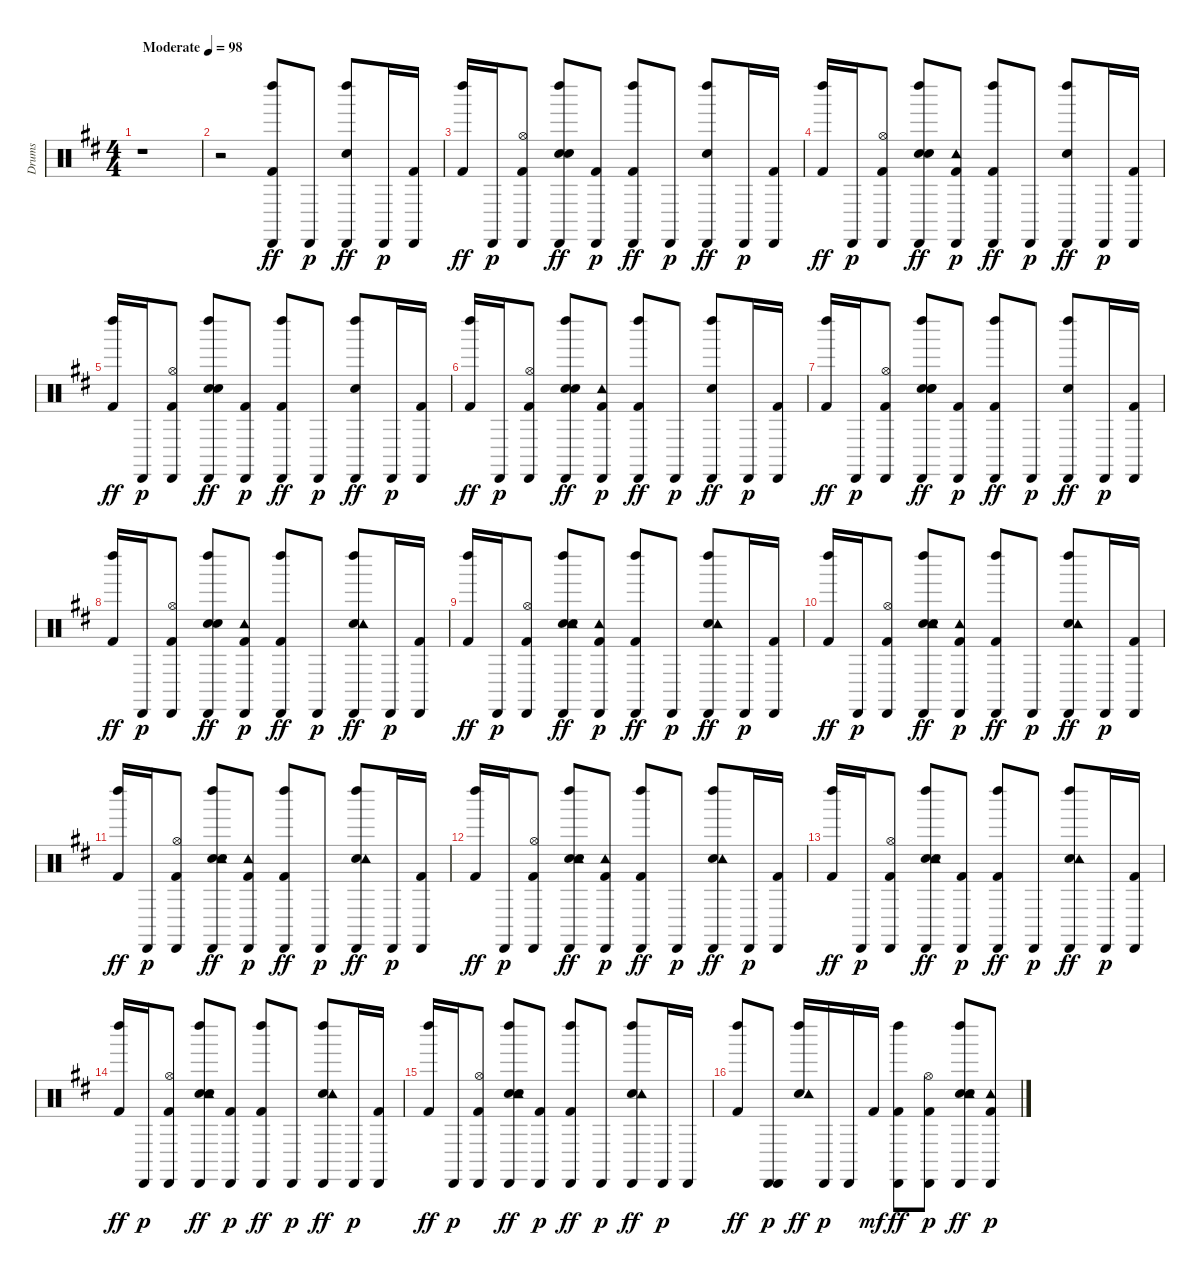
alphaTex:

\track ("Drums" "Drums") {instrument percussion}
\staff {score}
\articulation defaults
\ts (4 4)
\tempo (98 "Moderate")
\clef neutral
\ks d
r.1{dy ff} |
r.2 ("Kick (hit) 2" "Cabasa (hit)" "Left Maraca (hit)").8 "Cabasa (hit)".8{dy p} ("Electric Snare (hit)" "Cabasa (hit)" "Left Maraca (hit)").8{dy ff} "Cabasa (hit)".16{dy p} ("Kick (hit) 2" "Cabasa (hit)").16 |
("Kick (hit) 2" "Left Maraca (hit)").16{dy ff} "Cabasa (hit)".16{dy p} ("Kick (hit) 2" "Hi-Hat (open)" "Cabasa (hit)").8 ("Hand Clap (hit)" "Electric Snare (hit)" "Cabasa (hit)" "Left Maraca (hit)").8{dy ff} ("Kick (hit) 2" "Cabasa (hit)").8{dy p} ("Kick (hit) 2" "Cabasa (hit)" "Left Maraca (hit)").8{dy ff} "Cabasa (hit)".8{dy p} ("Electric Snare (hit)" "Cabasa (hit)" "Left Maraca (hit)").8{dy ff} "Cabasa (hit)".16{dy p} ("Kick (hit) 2" "Cabasa (hit)").16 |
("Kick (hit) 2" "Left Maraca (hit)").16{dy ff} "Cabasa (hit)".16{dy p} ("Kick (hit) 2" "Hi-Hat (open)" "Cabasa (hit)").8 ("Hand Clap (hit)" "Electric Snare (hit)" "Cabasa (hit)" "Left Maraca (hit)").8{dy ff} ("Kick (hit) 2" "Tambourine (hit)" "Cabasa (hit)").8{dy p} ("Kick (hit) 2" "Cabasa (hit)" "Left Maraca (hit)").8{dy ff} "Cabasa (hit)".8{dy p} ("Electric Snare (hit)" "Cabasa (hit)" "Left Maraca (hit)").8{dy ff} "Cabasa (hit)".16{dy p} ("Kick (hit) 2" "Cabasa (hit)").16 |
("Kick (hit) 2" "Left Maraca (hit)").16{dy ff} "Cabasa (hit)".16{dy p} ("Kick (hit) 2" "Hi-Hat (open)" "Cabasa (hit)").8 ("Hand Clap (hit)" "Electric Snare (hit)" "Cabasa (hit)" "Left Maraca (hit)").8{dy ff} ("Kick (hit) 2" "Cabasa (hit)").8{dy p} ("Kick (hit) 2" "Cabasa (hit)" "Left Maraca (hit)").8{dy ff} "Cabasa (hit)".8{dy p} ("Electric Snare (hit)" "Cabasa (hit)" "Left Maraca (hit)").8{dy ff} "Cabasa (hit)".16{dy p} ("Kick (hit) 2" "Cabasa (hit)").16 |
("Kick (hit) 2" "Left Maraca (hit)").16{dy ff} "Cabasa (hit)".16{dy p} ("Kick (hit) 2" "Hi-Hat (open)" "Cabasa (hit)").8 ("Hand Clap (hit)" "Electric Snare (hit)" "Cabasa (hit)" "Left Maraca (hit)").8{dy ff} ("Kick (hit) 2" "Tambourine (hit)" "Cabasa (hit)").8{dy p} ("Kick (hit) 2" "Cabasa (hit)" "Left Maraca (hit)").8{dy ff} "Cabasa (hit)".8{dy p} ("Electric Snare (hit)" "Cabasa (hit)" "Left Maraca (hit)").8{dy ff} "Cabasa (hit)".16{dy p} ("Kick (hit) 2" "Cabasa (hit)").16 |
("Kick (hit) 2" "Left Maraca (hit)").16{dy ff} "Cabasa (hit)".16{dy p} ("Kick (hit) 2" "Hi-Hat (open)" "Cabasa (hit)").8 ("Snare (hit) 2" "Hand Clap (hit)" "Electric Snare (hit)" "Cabasa (hit)" "Left Maraca (hit)").8{dy ff} ("Kick (hit) 2" "Cabasa (hit)").8{dy p} ("Kick (hit) 2" "Cabasa (hit)" "Left Maraca (hit)").8{dy ff} "Cabasa (hit)".8{dy p} ("Electric Snare (hit)" "Cabasa (hit)" "Left Maraca (hit)").8{dy ff} "Cabasa (hit)".16{dy p} ("Kick (hit) 2" "Cabasa (hit)").16 |
("Kick (hit) 2" "Left Maraca (hit)").16{dy ff} "Cabasa (hit)".16{dy p} ("Kick (hit) 2" "Hi-Hat (open)" "Cabasa (hit)").8 ("Hand Clap (hit)" "Electric Snare (hit)" "Cabasa (hit)" "Left Maraca (hit)").8{dy ff} ("Kick (hit) 2" "Tambourine (hit)" "Cabasa (hit)").8{dy p} ("Kick (hit) 2" "Cabasa (hit)" "Left Maraca (hit)").8{dy ff} "Cabasa (hit)".8{dy p} ("Electric Snare (hit)" "Tambourine (hit)" "Cabasa (hit)" "Left Maraca (hit)").8{dy ff} "Cabasa (hit)".16{dy p} ("Kick (hit) 2" "Cabasa (hit)").16 |
("Kick (hit) 2" "Left Maraca (hit)").16{dy ff} "Cabasa (hit)".16{dy p} ("Kick (hit) 2" "Hi-Hat (open)" "Cabasa (hit)").8 ("Hand Clap (hit)" "Electric Snare (hit)" "Tambourine (hit)" "Cabasa (hit)" "Left Maraca (hit)").8{dy ff} ("Kick (hit) 2" "Tambourine (hit)" "Cabasa (hit)").8{dy p} ("Kick (hit) 2" "Cabasa (hit)" "Left Maraca (hit)").8{dy ff} "Cabasa (hit)".8{dy p} ("Electric Snare (hit)" "Tambourine (hit)" "Cabasa (hit)" "Left Maraca (hit)").8{dy ff} "Cabasa (hit)".16{dy p} ("Kick (hit) 2" "Cabasa (hit)").16 |
("Kick (hit) 2" "Left Maraca (hit)").16{dy ff} "Cabasa (hit)".16{dy p} ("Kick (hit) 2" "Hi-Hat (open)" "Cabasa (hit)").8 ("Hand Clap (hit)" "Electric Snare (hit)" "Tambourine (hit)" "Cabasa (hit)" "Left Maraca (hit)").8{dy ff} ("Kick (hit) 2" "Tambourine (hit)" "Cabasa (hit)").8{dy p} ("Kick (hit) 2" "Cabasa (hit)" "Left Maraca (hit)").8{dy ff} "Cabasa (hit)".8{dy p} ("Electric Snare (hit)" "Tambourine (hit)" "Cabasa (hit)" "Left Maraca (hit)").8{dy ff} "Cabasa (hit)".16{dy p} ("Kick (hit) 2" "Cabasa (hit)").16 |
("Kick (hit) 2" "Left Maraca (hit)").16{dy ff} "Cabasa (hit)".16{dy p} ("Kick (hit) 2" "Hi-Hat (open)" "Cabasa (hit)").8 ("Hand Clap (hit)" "Electric Snare (hit)" "Tambourine (hit)" "Cabasa (hit)" "Left Maraca (hit)").8{dy ff} ("Kick (hit) 2" "Tambourine (hit)" "Cabasa (hit)").8{dy p} ("Kick (hit) 2" "Cabasa (hit)" "Left Maraca (hit)").8{dy ff} "Cabasa (hit)".8{dy p} ("Electric Snare (hit)" "Tambourine (hit)" "Cabasa (hit)" "Left Maraca (hit)").8{dy ff} "Cabasa (hit)".16{dy p} ("Kick (hit) 2" "Cabasa (hit)").16 |
("Kick (hit) 2" "Left Maraca (hit)").16{dy ff} "Cabasa (hit)".16{dy p} ("Kick (hit) 2" "Hi-Hat (open)" "Cabasa (hit)").8 ("Hand Clap (hit)" "Electric Snare (hit)" "Tambourine (hit)" "Cabasa (hit)" "Left Maraca (hit)").8{dy ff} ("Kick (hit) 2" "Tambourine (hit)" "Cabasa (hit)").8{dy p} ("Kick (hit) 2" "Cabasa (hit)" "Left Maraca (hit)").8{dy ff} "Cabasa (hit)".8{dy p} ("Electric Snare (hit)" "Tambourine (hit)" "Cabasa (hit)" "Left Maraca (hit)").8{dy ff} "Cabasa (hit)".16{dy p} ("Kick (hit) 2" "Cabasa (hit)").16 |
("Kick (hit) 2" "Left Maraca (hit)").16{dy ff} "Cabasa (hit)".16{dy p} ("Kick (hit) 2" "Hi-Hat (open)" "Cabasa (hit)").8 ("Hand Clap (hit)" "Electric Snare (hit)" "Tambourine (hit)" "Cabasa (hit)" "Left Maraca (hit)").8{dy ff} ("Kick (hit) 2" "Cabasa (hit)").8{dy p} ("Kick (hit) 2" "Cabasa (hit)" "Left Maraca (hit)").8{dy ff} "Cabasa (hit)".8{dy p} ("Electric Snare (hit)" "Tambourine (hit)" "Cabasa (hit)" "Left Maraca (hit)").8{dy ff} "Cabasa (hit)".16{dy p} ("Kick (hit) 2" "Cabasa (hit)").16 |
("Kick (hit) 2" "Left Maraca (hit)").16{dy ff} "Cabasa (hit)".16{dy p} ("Kick (hit) 2" "Hi-Hat (open)" "Cabasa (hit)").8 ("Hand Clap (hit)" "Electric Snare (hit)" "Tambourine (hit)" "Cabasa (hit)" "Left Maraca (hit)").8{dy ff} ("Kick (hit) 2" "Cabasa (hit)").8{dy p} ("Kick (hit) 2" "Cabasa (hit)" "Left Maraca (hit)").8{dy ff} "Cabasa (hit)".8{dy p} ("Electric Snare (hit)" "Tambourine (hit)" "Cabasa (hit)" "Left Maraca (hit)").8{dy ff} "Cabasa (hit)".16{dy p} ("Kick (hit) 2" "Cabasa (hit)").16 |
("Kick (hit) 2" "Left Maraca (hit)").16{dy ff} "Cabasa (hit)".16{dy p} ("Kick (hit) 2" "Hi-Hat (open)" "Cabasa (hit)").8 ("Hand Clap (hit)" "Electric Snare (hit)" "Tambourine (hit)" "Cabasa (hit)" "Left Maraca (hit)").8{dy ff} ("Kick (hit) 2" "Cabasa (hit)").8{dy p} ("Kick (hit) 2" "Cabasa (hit)" "Left Maraca (hit)").8{dy ff} "Cabasa (hit)".8{dy p} ("Electric Snare (hit)" "Tambourine (hit)" "Cabasa (hit)" "Left Maraca (hit)").8{dy ff} "Cabasa (hit)".16{dy p} "Cabasa (hit)".16 |
("Kick (hit) 2" "Left Maraca (hit)").8{dy ff} ("Cabasa (hit)" "Cabasa (hit)").8{dy p} ("Electric Snare (hit)" "Tambourine (hit)" "Left Maraca (hit)").16{dy ff} "Cabasa (hit)".16{dy p} "Cabasa (hit)".16 "Kick (hit) 2".16{dy mf} ("Kick (hit) 2" "Cabasa (hit)" "Left Maraca (hit)").8{dy ff} ("Kick (hit) 2" "Hi-Hat (open)" "Cabasa (hit)").8{dy p} ("Hand Clap (hit)" "Electric Snare (hit)" "Tambourine (hit)" "Cabasa (hit)" "Left Maraca (hit)").8{dy ff} ("Kick (hit) 2" "Tambourine (hit)" "Cabasa (hit)").8{dy p}
